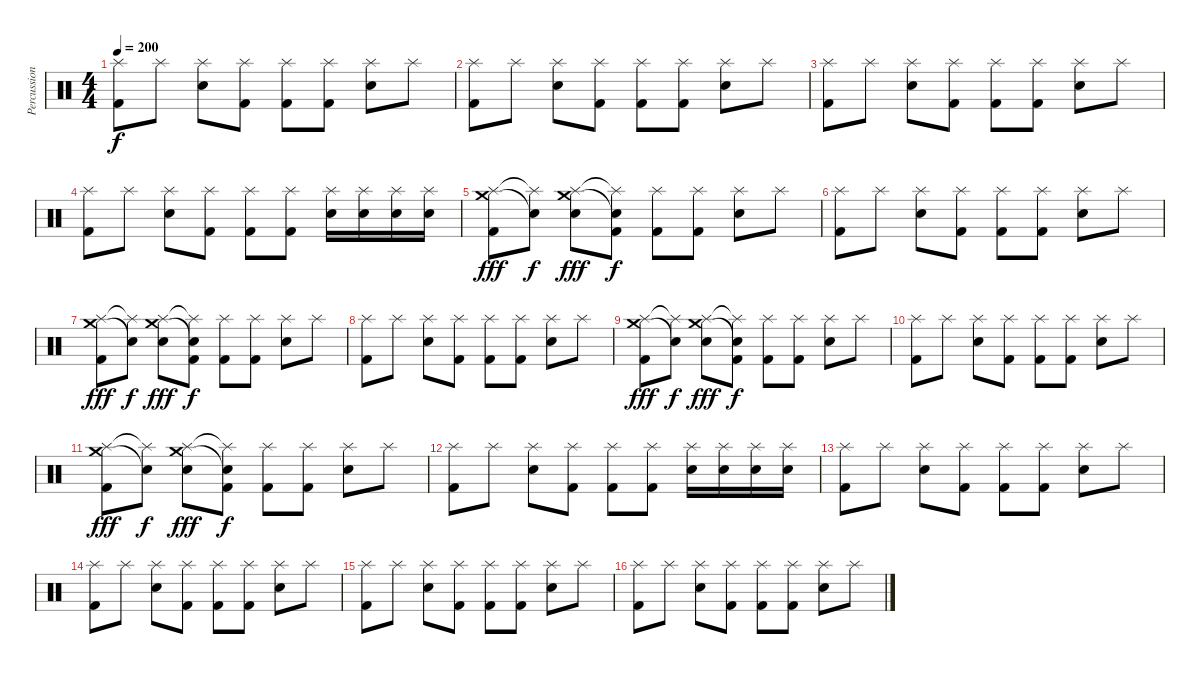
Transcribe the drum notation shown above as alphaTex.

\track ("Percussions" "Percussion") {instrument percussion}
\staff {score}
\articulation defaults
\ts (4 4)
\tempo 200
\clef neutral
\ks c
("Splash (hit)" "Kick (hit) 2").8{dy f} "Splash (hit)".8 ("Splash (hit)" "Electric Snare (hit)").8 ("Splash (hit)" "Kick (hit) 2").8 ("Splash (hit)" "Kick (hit) 2").8 ("Splash (hit)" "Kick (hit) 2").8 ("Splash (hit)" "Electric Snare (hit)").8 "Splash (hit)".8 |
("Splash (hit)" "Kick (hit) 2").8 "Splash (hit)".8 ("Splash (hit)" "Electric Snare (hit)").8 ("Splash (hit)" "Kick (hit) 2").8 ("Splash (hit)" "Kick (hit) 2").8 ("Splash (hit)" "Kick (hit) 2").8 ("Splash (hit)" "Electric Snare (hit)").8 "Splash (hit)".8 |
("Splash (hit)" "Kick (hit) 2").8 "Splash (hit)".8 ("Splash (hit)" "Electric Snare (hit)").8 ("Splash (hit)" "Kick (hit) 2").8 ("Splash (hit)" "Kick (hit) 2").8 ("Splash (hit)" "Kick (hit) 2").8 ("Splash (hit)" "Electric Snare (hit)").8 "Splash (hit)".8 |
("Splash (hit)" "Kick (hit) 2").8 "Splash (hit)".8 ("Splash (hit)" "Electric Snare (hit)").8 ("Splash (hit)" "Kick (hit) 2").8 ("Splash (hit)" "Kick (hit) 2").8 ("Splash (hit)" "Kick (hit) 2").8 ("Splash (hit)" "Electric Snare (hit)").16 ("Splash (hit)" "Electric Snare (hit)").16 ("Splash (hit)" "Electric Snare (hit)").16 ("Splash (hit)" "Electric Snare (hit)").16 |
("Splash (hit)" "Crash medium (hit)" "Kick (hit) 2").8{dy fff} ("Splash (hit)"{t} "Snare (hit)"{t}).8{dy f} ("Splash (hit)" "Crash medium (hit)" "Electric Snare (hit)").8{dy fff} ("Splash (hit)"{t} "Snare (hit)"{t} "Kick (hit) 2").8{dy f} ("Splash (hit)" "Kick (hit) 2").8 ("Splash (hit)" "Kick (hit) 2").8 ("Splash (hit)" "Electric Snare (hit)").8 "Splash (hit)".8 |
("Splash (hit)" "Kick (hit) 2").8 "Splash (hit)".8 ("Splash (hit)" "Electric Snare (hit)").8 ("Splash (hit)" "Kick (hit) 2").8 ("Splash (hit)" "Kick (hit) 2").8 ("Splash (hit)" "Kick (hit) 2").8 ("Splash (hit)" "Electric Snare (hit)").8 "Splash (hit)".8 |
("Splash (hit)" "Crash medium (hit)" "Kick (hit) 2").8{dy fff} ("Splash (hit)"{t} "Snare (hit)"{t}).8{dy f} ("Splash (hit)" "Crash medium (hit)" "Electric Snare (hit)").8{dy fff} ("Splash (hit)"{t} "Snare (hit)"{t} "Kick (hit) 2").8{dy f} ("Splash (hit)" "Kick (hit) 2").8 ("Splash (hit)" "Kick (hit) 2").8 ("Splash (hit)" "Electric Snare (hit)").8 "Splash (hit)".8 |
("Splash (hit)" "Kick (hit) 2").8 "Splash (hit)".8 ("Splash (hit)" "Electric Snare (hit)").8 ("Splash (hit)" "Kick (hit) 2").8 ("Splash (hit)" "Kick (hit) 2").8 ("Splash (hit)" "Kick (hit) 2").8 ("Splash (hit)" "Electric Snare (hit)").8 "Splash (hit)".8 |
("Splash (hit)" "Crash medium (hit)" "Kick (hit) 2").8{dy fff} ("Splash (hit)"{t} "Snare (hit)"{t}).8{dy f} ("Splash (hit)" "Crash medium (hit)" "Electric Snare (hit)").8{dy fff} ("Splash (hit)"{t} "Snare (hit)"{t} "Kick (hit) 2").8{dy f} ("Splash (hit)" "Kick (hit) 2").8 ("Splash (hit)" "Kick (hit) 2").8 ("Splash (hit)" "Electric Snare (hit)").8 "Splash (hit)".8 |
("Splash (hit)" "Kick (hit) 2").8 "Splash (hit)".8 ("Splash (hit)" "Electric Snare (hit)").8 ("Splash (hit)" "Kick (hit) 2").8 ("Splash (hit)" "Kick (hit) 2").8 ("Splash (hit)" "Kick (hit) 2").8 ("Splash (hit)" "Electric Snare (hit)").8 "Splash (hit)".8 |
("Splash (hit)" "Crash medium (hit)" "Kick (hit) 2").8{dy fff} ("Splash (hit)"{t} "Snare (hit)"{t}).8{dy f} ("Splash (hit)" "Crash medium (hit)" "Electric Snare (hit)").8{dy fff} ("Splash (hit)"{t} "Snare (hit)"{t} "Kick (hit) 2").8{dy f} ("Splash (hit)" "Kick (hit) 2").8 ("Splash (hit)" "Kick (hit) 2").8 ("Splash (hit)" "Electric Snare (hit)").8 "Splash (hit)".8 |
("Splash (hit)" "Kick (hit) 2").8 "Splash (hit)".8 ("Splash (hit)" "Electric Snare (hit)").8 ("Splash (hit)" "Kick (hit) 2").8 ("Splash (hit)" "Kick (hit) 2").8 ("Splash (hit)" "Kick (hit) 2").8 ("Splash (hit)" "Electric Snare (hit)").16 ("Splash (hit)" "Electric Snare (hit)").16 ("Splash (hit)" "Electric Snare (hit)").16 ("Splash (hit)" "Electric Snare (hit)").16 |
("Splash (hit)" "Kick (hit) 2").8 "Splash (hit)".8 ("Splash (hit)" "Electric Snare (hit)").8 ("Splash (hit)" "Kick (hit) 2").8 ("Splash (hit)" "Kick (hit) 2").8 ("Splash (hit)" "Kick (hit) 2").8 ("Splash (hit)" "Electric Snare (hit)").8 "Splash (hit)".8 |
("Splash (hit)" "Kick (hit) 2").8 "Splash (hit)".8 ("Splash (hit)" "Electric Snare (hit)").8 ("Splash (hit)" "Kick (hit) 2").8 ("Splash (hit)" "Kick (hit) 2").8 ("Splash (hit)" "Kick (hit) 2").8 ("Splash (hit)" "Electric Snare (hit)").8 "Splash (hit)".8 |
("Splash (hit)" "Kick (hit) 2").8 "Splash (hit)".8 ("Splash (hit)" "Electric Snare (hit)").8 ("Splash (hit)" "Kick (hit) 2").8 ("Splash (hit)" "Kick (hit) 2").8 ("Splash (hit)" "Kick (hit) 2").8 ("Splash (hit)" "Electric Snare (hit)").8 "Splash (hit)".8 |
("Splash (hit)" "Kick (hit) 2").8 "Splash (hit)".8 ("Splash (hit)" "Electric Snare (hit)").8 ("Splash (hit)" "Kick (hit) 2").8 ("Splash (hit)" "Kick (hit) 2").8 ("Splash (hit)" "Kick (hit) 2").8 ("Splash (hit)" "Electric Snare (hit)").8 "Splash (hit)".8
